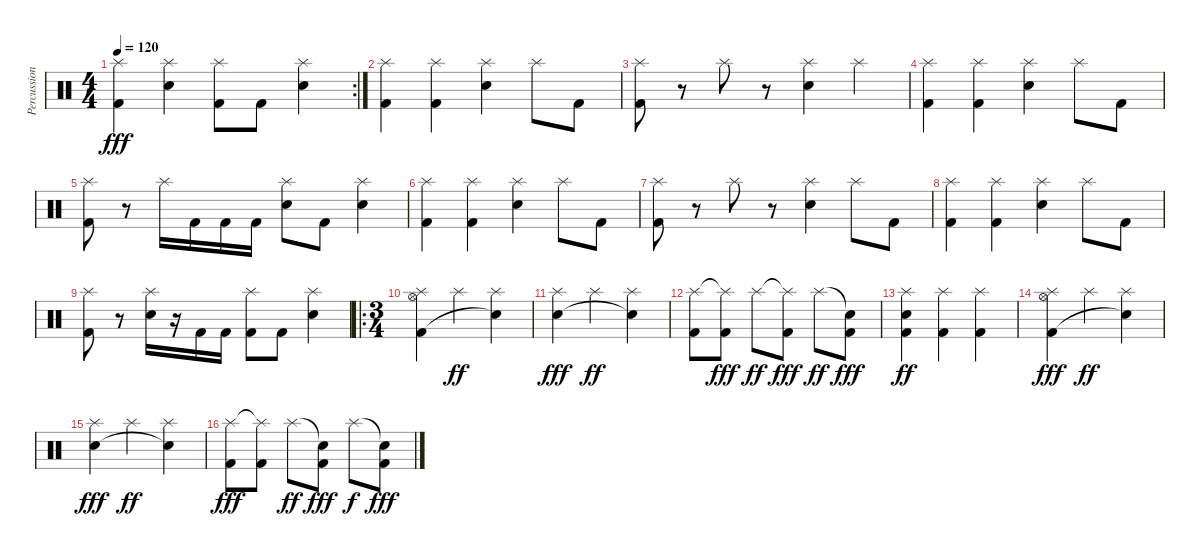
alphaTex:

\track ("Percussion" "Percussion") {instrument percussion}
\staff {score}
\articulation defaults
\rc 2
\ts (4 4)
\tempo 120
\clef neutral
\ks c
("Splash (hit)" "Kick (hit) 2").4{dy fff} ("Splash (hit)" "Electric Snare (hit)").4 ("Splash (hit)" "Kick (hit) 2").8 "Kick (hit) 2".8 ("Splash (hit)" "Electric Snare (hit)").4 |
("Splash (hit)" "Kick (hit) 2").4 ("Splash (hit)" "Kick (hit) 2").4 ("Splash (hit)" "Electric Snare (hit)").4 "Splash (hit)".8 "Kick (hit) 2".8 |
("Splash (hit)" "Kick (hit) 2").8 r.8 "Splash (hit)".8 r.8 ("Splash (hit)" "Electric Snare (hit)").4 "Splash (hit)".4 |
("Splash (hit)" "Kick (hit) 2").4 ("Splash (hit)" "Kick (hit) 2").4 ("Splash (hit)" "Electric Snare (hit)").4 "Splash (hit)".8 "Kick (hit) 2".8 |
("Splash (hit)" "Kick (hit) 2").8 r.8 "Splash (hit)".16 "Kick (hit) 2".16 "Kick (hit) 2".16 "Kick (hit) 2".16 ("Splash (hit)" "Electric Snare (hit)").8 "Kick (hit) 2".8 ("Splash (hit)" "Electric Snare (hit)").4 |
("Splash (hit)" "Kick (hit) 2").4 ("Splash (hit)" "Kick (hit) 2").4 ("Splash (hit)" "Electric Snare (hit)").4 "Splash (hit)".8 "Kick (hit) 2".8 |
("Splash (hit)" "Kick (hit) 2").8 r.8 "Splash (hit)".8 r.8 ("Splash (hit)" "Electric Snare (hit)").4 "Splash (hit)".8 "Kick (hit) 2".8 |
("Splash (hit)" "Kick (hit) 2").4 ("Splash (hit)" "Kick (hit) 2").4 ("Splash (hit)" "Electric Snare (hit)").4 "Splash (hit)".8 "Kick (hit) 2".8 |
("Splash (hit)" "Kick (hit) 2").8 r.8 ("Splash (hit)" "Electric Snare (hit)").16 r.16 "Kick (hit) 2".16 "Kick (hit) 2".16 ("Splash (hit)" "Kick (hit) 2").8 "Kick (hit) 2".8 ("Splash (hit)" "Electric Snare (hit)").4 |
\ro
\ts (3 4)
("Splash (hit)" "Kick (hit) 2" "Hi-Hat (open)").4 "Splash (hit)".4{dy ff} ("Splash (hit)" "Snare (hit)"{t}).4 |
("Splash (hit)" "Electric Snare (hit)").4{dy fff} "Splash (hit)".4{dy ff} ("Splash (hit)" "Snare (hit)"{t}).4 |
("Splash (hit)" "Kick (hit) 2").8 ("Splash (hit)"{t} "Kick (hit) 2").8{dy fff} "Splash (hit)".8{dy ff} ("Splash (hit)"{t} "Kick (hit) 2").8{dy fff} "Splash (hit)".8{dy ff} ("Snare (hit)"{t} "Kick (hit) 2").8{dy fff} |
("Splash (hit)" "Electric Snare (hit)" "Kick (hit) 2").4{dy ff} ("Splash (hit)" "Kick (hit) 2").4 ("Splash (hit)" "Kick (hit) 2").4 |
("Splash (hit)" "Kick (hit) 2" "Hi-Hat (open)").4{dy fff} "Splash (hit)".4{dy ff} ("Splash (hit)" "Snare (hit)"{t}).4 |
("Splash (hit)" "Electric Snare (hit)").4{dy fff} "Splash (hit)".4{dy ff} ("Splash (hit)" "Snare (hit)"{t}).4 |
("Splash (hit)" "Kick (hit) 2").8{dy fff} ("Splash (hit)"{t} "Kick (hit) 2").8 "Splash (hit)".8{dy ff} ("Snare (hit)"{t} "Kick (hit) 2").8{dy fff} "Splash (hit)".8{dy f} ("Snare (hit)"{t} "Kick (hit) 2").8{dy fff}
